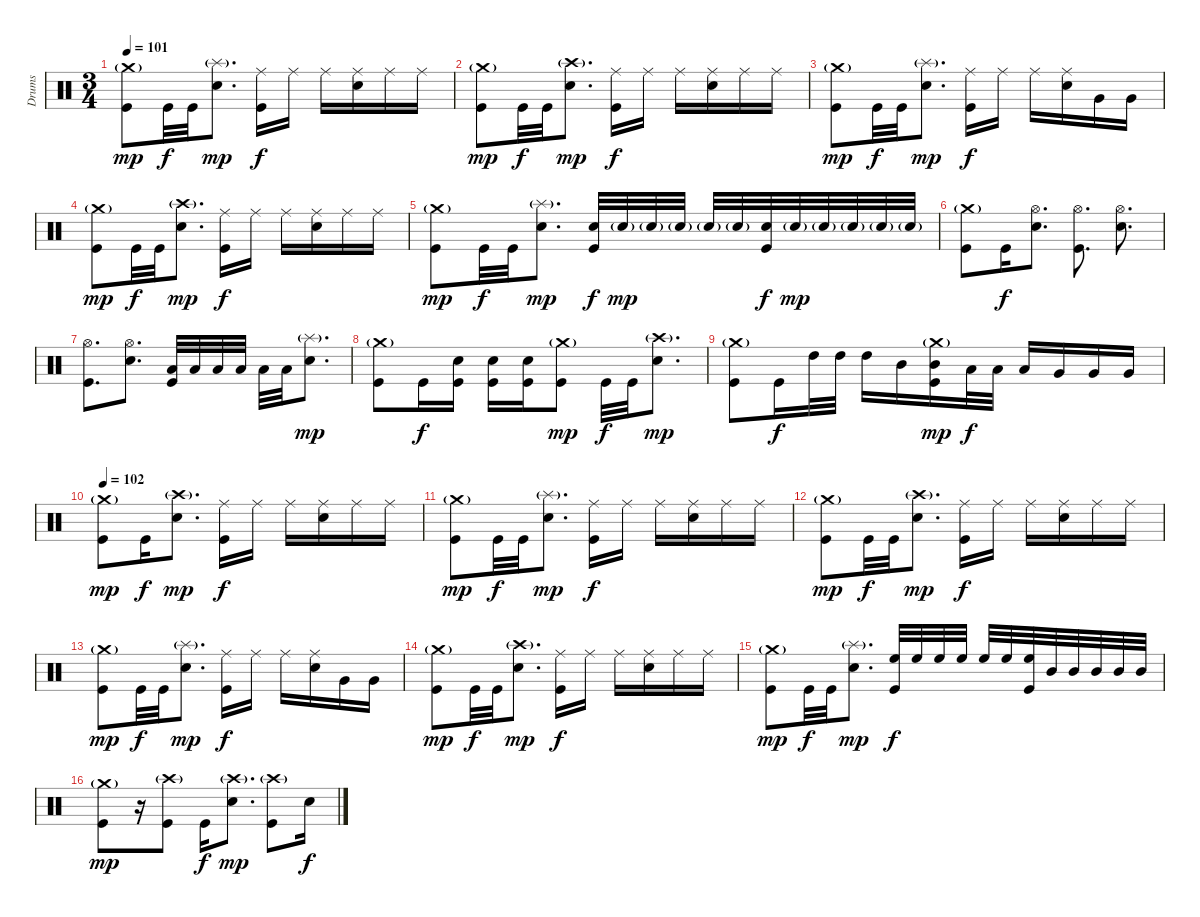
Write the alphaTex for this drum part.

\track ("Drums" "Drums") {instrument percussion}
\staff {score}
\articulation defaults
\ts (3 4)
\tempo 101
\clef neutral
\ks c
("Crash medium (hit)"{g} "Kick (hit)").8{dy mp} "Kick (hit)".32{dy f} "Kick (hit)".32 ("Splash (hit)"{g} "Snare (hit) 2").8{d dy mp} ("Ride (middle)" "Kick (hit)").16{dy f} "Ride (middle)".16 "Ride (middle)".16 ("Ride (middle)" "Snare (hit) 2").16 "Ride (middle)".16 "Ride (middle)".16 |
("Crash medium (hit)"{g} "Kick (hit)").8{dy mp} "Kick (hit)".32{dy f} "Kick (hit)".32 ("Crash high (hit)"{g} "Snare (hit) 2").8{d dy mp} ("Ride (middle)" "Kick (hit)").16{dy f} "Ride (middle)".16 "Ride (middle)".16 ("Ride (middle)" "Snare (hit) 2").16 "Ride (middle)".16 "Ride (middle)".16 |
("Crash medium (hit)"{g} "Kick (hit)").8{dy mp} "Kick (hit)".32{dy f} "Kick (hit)".32 ("Splash (hit)"{g} "Snare (hit) 2").8{d dy mp} ("Ride (middle)" "Kick (hit)").16{dy f} "Ride (middle)".16 "Ride (middle)".16 ("Ride (middle)" "Snare (hit) 2").16 "Very Low Tom (hit)".16 "Very Low Tom (hit)".16 |
("Crash medium (hit)"{g} "Kick (hit)").8{dy mp} "Kick (hit)".32{dy f} "Kick (hit)".32 ("Crash high (hit)"{g} "Snare (hit) 2").8{d dy mp} ("Ride (middle)" "Kick (hit)").16{dy f} "Ride (middle)".16 "Ride (middle)".16 ("Ride (middle)" "Snare (hit) 2").16 "Ride (middle)".16 "Ride (middle)".16 |
("Crash medium (hit)"{g} "Kick (hit)").8{dy mp} "Kick (hit)".32{dy f} "Kick (hit)".32 ("Splash (hit)"{g} "Snare (hit) 2").8{d dy mp} ("Snare (hit) 2" "Kick (hit)").32{dy f} "Snare (hit) 2"{g}.32{dy mp} "Snare (hit) 2"{g}.32 "Snare (hit) 2"{g}.32 "Snare (hit) 2"{g}.32 "Snare (hit) 2"{g}.32 ("Snare (hit) 2" "Kick (hit)").32{dy f} "Snare (hit) 2"{g}.32{dy mp} "Snare (hit) 2"{g}.32 "Snare (hit) 2"{g}.32 "Snare (hit) 2"{g}.32 "Snare (hit) 2"{g}.32 |
("Crash medium (hit)"{g} "Kick (hit)").8 "Kick (hit)".16{dy f} ("Hi-Hat (open)" "Snare (hit) 2").8{d} ("Hi-Hat (open)" "Kick (hit)").8{d} ("Hi-Hat (open)" "Snare (hit) 2").8{d} |
("Hi-Hat (open)" "Kick (hit)").8{d} ("Hi-Hat (open)" "Snare (hit) 2").8{d} ("Low Tom (hit)" "Kick (hit)").32 "Low Tom (hit)".32 "Low Tom (hit)".32 "Low Tom (hit)".32 "Low Tom (hit)".32 "Low Tom (hit)".32 ("Splash (hit)"{g} "Snare (hit) 2").8{d dy mp} |
("Crash medium (hit)"{g} "Kick (hit)").8 "Kick (hit)".16{dy f} ("Snare (hit) 2" "Kick (hit)").16 ("Snare (hit) 2" "Kick (hit)").16 ("Snare (hit) 2" "Kick (hit)").16 ("Crash medium (hit)"{g} "Kick (hit)").8{dy mp} "Kick (hit)".32{dy f} "Kick (hit)".32 ("Crash high (hit)"{g} "Snare (hit) 2").8{d dy mp} |
("Crash medium (hit)"{g} "Kick (hit)").8 "Kick (hit)".16{dy f} "High Tom (hit)".32 "High Tom (hit)".32 "High Tom (hit)".16 "Mid Tom (hit)".16 ("Crash medium (hit)"{g} "Mid Tom (hit)" "Kick (hit)").16{dy mp} "Low Tom (hit)".32{dy f} "Low Tom (hit)".32 "Low Tom (hit)".16 "Very Low Tom (hit)".16 "Very Low Tom (hit)".16 "Very Low Tom (hit)".16 |
\tempo 102
("Crash medium (hit)"{g} "Kick (hit)").8{dy mp} "Kick (hit)".16{dy f} ("Crash high (hit)"{g} "Snare (hit) 2").8{d dy mp} ("Ride (middle)" "Kick (hit)").16{dy f} "Ride (middle)".16 "Ride (middle)".16 ("Ride (middle)" "Snare (hit) 2").16 "Ride (middle)".16 "Ride (middle)".16 |
("Crash medium (hit)"{g} "Kick (hit)").8{dy mp} "Kick (hit)".32{dy f} "Kick (hit)".32 ("Splash (hit)"{g} "Snare (hit) 2").8{d dy mp} ("Ride (middle)" "Kick (hit)").16{dy f} "Ride (middle)".16 "Ride (middle)".16 ("Ride (middle)" "Snare (hit) 2").16 "Ride (middle)".16 "Ride (middle)".16 |
("Crash medium (hit)"{g} "Kick (hit)").8{dy mp} "Kick (hit)".32{dy f} "Kick (hit)".32 ("Crash high (hit)"{g} "Snare (hit) 2").8{d dy mp} ("Ride (middle)" "Kick (hit)").16{dy f} "Ride (middle)".16 "Ride (middle)".16 ("Ride (middle)" "Snare (hit) 2").16 "Ride (middle)".16 "Ride (middle)".16 |
("Crash medium (hit)"{g} "Kick (hit)").8{dy mp} "Kick (hit)".32{dy f} "Kick (hit)".32 ("Splash (hit)"{g} "Snare (hit) 2").8{d dy mp} ("Ride (middle)" "Kick (hit)").16{dy f} "Ride (middle)".16 "Ride (middle)".16 ("Ride (middle)" "Snare (hit) 2").16 "Very Low Tom (hit)".16 "Very Low Tom (hit)".16 |
("Crash medium (hit)"{g} "Kick (hit)").8{dy mp} "Kick (hit)".32{dy f} "Kick (hit)".32 ("Crash high (hit)"{g} "Snare (hit) 2").8{d dy mp} ("Ride (middle)" "Kick (hit)").16{dy f} "Ride (middle)".16 "Ride (middle)".16 ("Ride (middle)" "Snare (hit) 2").16 "Ride (middle)".16 "Ride (middle)".16 |
("Crash medium (hit)"{g} "Kick (hit)").8{dy mp} "Kick (hit)".32{dy f} "Kick (hit)".32 ("Splash (hit)"{g} "Snare (hit) 2").8{d dy mp} ("High Floor Tom (hit)" "Kick (hit)").32{dy f} "High Floor Tom (hit)".32 "High Floor Tom (hit)".32 "High Floor Tom (hit)".32 "High Floor Tom (hit)".32 "High Floor Tom (hit)".32 ("High Floor Tom (hit)" "Kick (hit)").32 "Mid Tom (hit)".32 "Mid Tom (hit)".32 "Mid Tom (hit)".32 "Mid Tom (hit)".32 "Mid Tom (hit)".32 |
("Crash medium (hit)"{g} "Kick (hit)").8{dy mp} r.16 ("Crash high (hit)"{g} "Kick (hit)").8 "Kick (hit)".16{dy f} ("Crash high (hit)"{g} "Snare (hit) 2").8{d dy mp} ("Crash high (hit)"{g} "Kick (hit)").8 "Snare (hit) 2".16{dy f}
